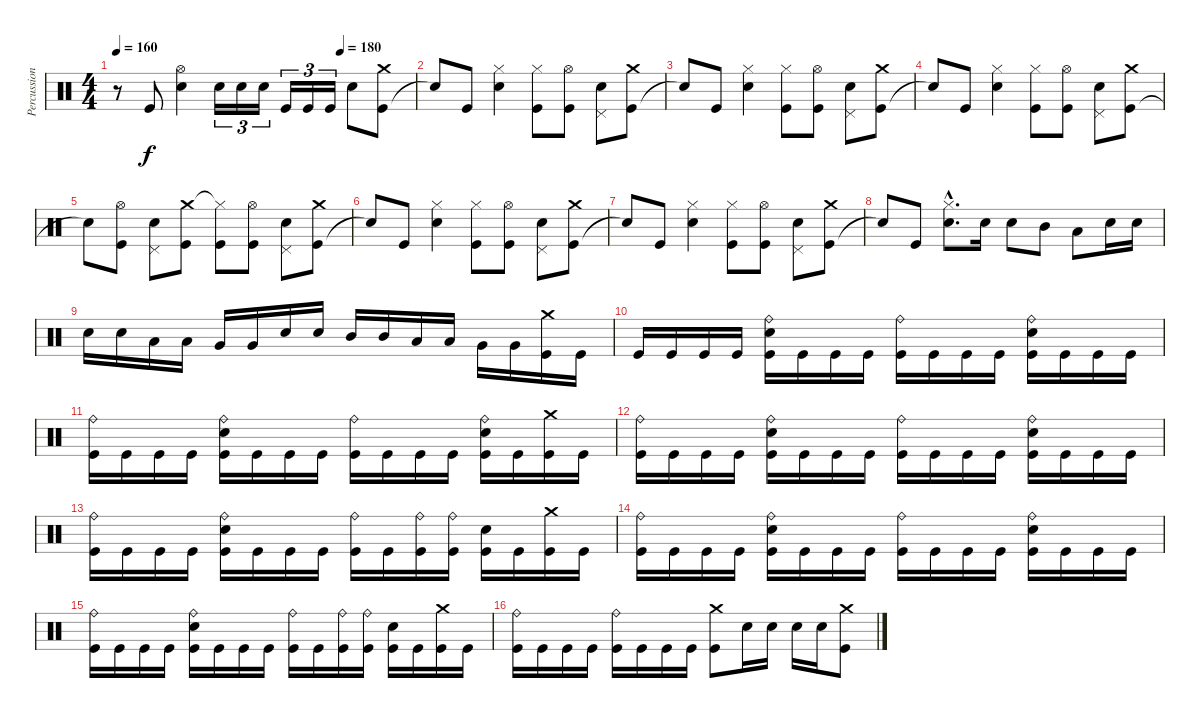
\track ("Percussions" "Percussion") {instrument percussion}
\staff {score}
\articulation defaults
\ts (4 4)
\tempo 160
\tempo (180 0.75)
\clef neutral
\ks c
r.8{dy f} "Kick (hit)".8 ("Electric Snare (hit)" "Hi-Hat (open)").4 "Electric Snare (hit)".16{tu (3 2)} "Electric Snare (hit)".16{tu (3 2)} "Electric Snare (hit)".16{tu (3 2)} "Kick (hit)".16{tu (3 2)} "Kick (hit)".16{tu (3 2)} "Kick (hit)".16{tu (3 2)} "Electric Snare (hit)".8 ("Kick (hit)" "Crash medium (hit)").8 |
"Snare (hit)"{t}.8 "Kick (hit)".8 ("Electric Snare (hit)" "Hi-Hat (closed)").4 ("Kick (hit)" "Hi-Hat (closed)").8 ("Kick (hit)" "Hi-Hat (open)").8 ("Electric Snare (hit)" "Pedal Hi-Hat (hit)").8 ("Kick (hit)" "Crash medium (hit)").8 |
"Snare (hit)"{t}.8 "Kick (hit)".8 ("Electric Snare (hit)" "Hi-Hat (closed)").4 ("Kick (hit)" "Hi-Hat (closed)").8 ("Kick (hit)" "Hi-Hat (open)").8 ("Electric Snare (hit)" "Pedal Hi-Hat (hit)").8 ("Kick (hit)" "Crash medium (hit)").8 |
"Snare (hit)"{t}.8 "Kick (hit)".8 ("Electric Snare (hit)" "Hi-Hat (closed)").4 ("Kick (hit)" "Hi-Hat (closed)").8 ("Kick (hit)" "Hi-Hat (open)").8 ("Electric Snare (hit)" "Pedal Hi-Hat (hit)").8 ("Kick (hit)" "Crash medium (hit)").8 |
"Snare (hit)"{t}.8 ("Kick (hit)" "Hi-Hat (open)").8 ("Electric Snare (hit)" "Pedal Hi-Hat (hit)").8 ("Kick (hit)" "Crash medium (hit)").8 ("Kick (hit)" "Hi-Hat (closed)"{t}).8 ("Kick (hit)" "Hi-Hat (open)").8 ("Electric Snare (hit)" "Pedal Hi-Hat (hit)").8 ("Kick (hit)" "Crash medium (hit)").8 |
"Snare (hit)"{t}.8 "Kick (hit)".8 ("Electric Snare (hit)" "Hi-Hat (closed)").4 ("Kick (hit)" "Hi-Hat (closed)").8 ("Kick (hit)" "Hi-Hat (open)").8 ("Electric Snare (hit)" "Pedal Hi-Hat (hit)").8 ("Kick (hit)" "Crash medium (hit)").8 |
"Snare (hit)"{t}.8 "Kick (hit)".8 ("Electric Snare (hit)" "Hi-Hat (closed)").4 ("Kick (hit)" "Hi-Hat (closed)").8 ("Kick (hit)" "Hi-Hat (open)").8 ("Electric Snare (hit)" "Pedal Hi-Hat (hit)").8 ("Kick (hit)" "Crash medium (hit)").8 |
"Snare (hit)"{t}.8 "Kick (hit)".8 ("Electric Snare (hit)"{hac} "Hi-Hat (closed)"{hac}).8{d} "Electric Snare (hit)".16 "Electric Snare (hit)".8 "Mid Tom (hit)".8 "Low Tom (hit)".8 "Electric Snare (hit)".16 "Electric Snare (hit)".16 |
"Electric Snare (hit)".16 "Electric Snare (hit)".16 "Low Tom (hit)".16 "Low Tom (hit)".16 "Very Low Tom (hit)".16 "Very Low Tom (hit)".16 "Electric Snare (hit)".16 "Electric Snare (hit)".16 "Mid Tom (hit)".16 "Mid Tom (hit)".16 "Low Tom (hit)".16 "Low Tom (hit)".16 "Very Low Tom (hit)".16 "Very Low Tom (hit)".16 ("Kick (hit)" "Crash medium (hit)").16 "Kick (hit)".16 |
"Kick (hit)".16 "Kick (hit)".16 "Kick (hit)".16 "Kick (hit)".16 ("Kick (hit)" "Electric Snare (hit)" "Ride (bell)").16 "Kick (hit)".16 "Kick (hit)".16 "Kick (hit)".16 ("Kick (hit)" "Ride (bell)").16 "Kick (hit)".16 "Kick (hit)".16 "Kick (hit)".16 ("Kick (hit)" "Electric Snare (hit)" "Ride (bell)").16 "Kick (hit)".16 "Kick (hit)".16 "Kick (hit)".16 |
("Kick (hit)" "Ride (bell)").16 "Kick (hit)".16 "Kick (hit)".16 "Kick (hit)".16 ("Kick (hit)" "Electric Snare (hit)" "Ride (bell)").16 "Kick (hit)".16 "Kick (hit)".16 "Kick (hit)".16 ("Kick (hit)" "Ride (bell)").16 "Kick (hit)".16 "Kick (hit)".16 "Kick (hit)".16 ("Kick (hit)" "Electric Snare (hit)" "Ride (bell)").16 "Kick (hit)".16 ("Kick (hit)" "Crash medium (hit)").16 "Kick (hit)".16 |
("Kick (hit)" "Ride (bell)").16 "Kick (hit)".16 "Kick (hit)".16 "Kick (hit)".16 ("Kick (hit)" "Electric Snare (hit)" "Ride (bell)").16 "Kick (hit)".16 "Kick (hit)".16 "Kick (hit)".16 ("Kick (hit)" "Ride (bell)").16 "Kick (hit)".16 "Kick (hit)".16 "Kick (hit)".16 ("Kick (hit)" "Electric Snare (hit)" "Ride (bell)").16 "Kick (hit)".16 "Kick (hit)".16 "Kick (hit)".16 |
("Kick (hit)" "Ride (bell)").16 "Kick (hit)".16 "Kick (hit)".16 "Kick (hit)".16 ("Kick (hit)" "Electric Snare (hit)" "Ride (bell)").16 "Kick (hit)".16 "Kick (hit)".16 "Kick (hit)".16 ("Kick (hit)" "Ride (bell)").16 "Kick (hit)".16 ("Kick (hit)" "Ride (bell)").16 ("Kick (hit)" "Ride (bell)").16 ("Kick (hit)" "Electric Snare (hit)").16 "Kick (hit)".16 ("Kick (hit)" "Crash medium (hit)").16 "Kick (hit)".16 |
("Kick (hit)" "Ride (bell)").16 "Kick (hit)".16 "Kick (hit)".16 "Kick (hit)".16 ("Kick (hit)" "Electric Snare (hit)" "Ride (bell)").16 "Kick (hit)".16 "Kick (hit)".16 "Kick (hit)".16 ("Kick (hit)" "Ride (bell)").16 "Kick (hit)".16 "Kick (hit)".16 "Kick (hit)".16 ("Kick (hit)" "Electric Snare (hit)" "Ride (bell)").16 "Kick (hit)".16 "Kick (hit)".16 "Kick (hit)".16 |
("Kick (hit)" "Ride (bell)").16 "Kick (hit)".16 "Kick (hit)".16 "Kick (hit)".16 ("Kick (hit)" "Electric Snare (hit)" "Ride (bell)").16 "Kick (hit)".16 "Kick (hit)".16 "Kick (hit)".16 ("Kick (hit)" "Ride (bell)").16 "Kick (hit)".16 ("Kick (hit)" "Ride (bell)").16 ("Kick (hit)" "Ride (bell)").16 ("Kick (hit)" "Electric Snare (hit)").16 "Kick (hit)".16 ("Kick (hit)" "Crash medium (hit)").16 "Kick (hit)".16 |
("Kick (hit)" "Ride (bell)").16 "Kick (hit)".16 "Kick (hit)".16 "Kick (hit)".16 ("Kick (hit)" "Ride (bell)").16 "Kick (hit)".16 "Kick (hit)".16 "Kick (hit)".16 ("Kick (hit)" "Crash medium (hit)").8 "Electric Snare (hit)".16 "Electric Snare (hit)".16 "Electric Snare (hit)".16 "Electric Snare (hit)".16 ("Kick (hit)" "Crash medium (hit)").8
